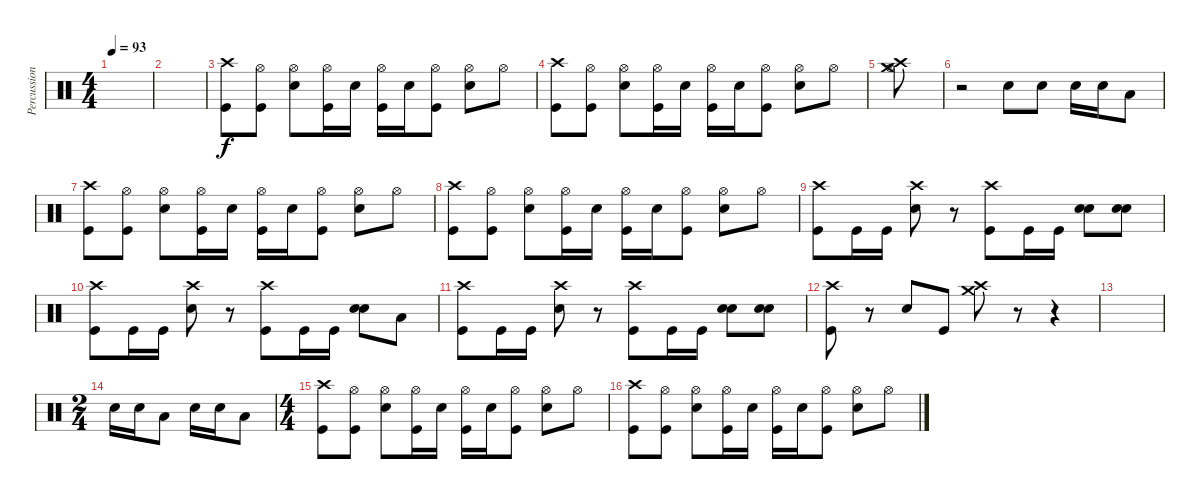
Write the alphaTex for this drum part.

\track ("Percussions" "Percussion") {instrument percussion}
\staff {score}
\articulation defaults
\ts (4 4)
\tempo 93
\clef neutral
\ks c
|
|
("Crash high (hit)" "Kick (hit)").8 ("Hi-Hat (open)" "Kick (hit)").8 ("Hi-Hat (open)" "Electric Snare (hit)").8 ("Hi-Hat (open)" "Kick (hit)").16 "Electric Snare (hit)".16 ("Hi-Hat (open)" "Kick (hit)").16 "Electric Snare (hit)".16 ("Hi-Hat (open)" "Kick (hit)").8 ("Hi-Hat (open)" "Electric Snare (hit)").8 "Hi-Hat (open)".8 |
("Crash high (hit)" "Kick (hit)").8 ("Hi-Hat (open)" "Kick (hit)").8 ("Hi-Hat (open)" "Electric Snare (hit)").8 ("Hi-Hat (open)" "Kick (hit)").16 "Electric Snare (hit)".16 ("Hi-Hat (open)" "Kick (hit)").16 "Electric Snare (hit)".16 ("Hi-Hat (open)" "Kick (hit)").8 ("Hi-Hat (open)" "Electric Snare (hit)").8 "Hi-Hat (open)".8 |
("Crash high (hit)" "Crash medium (hit)" "Hi-Hat (open)").8 |
r.2 "Electric Snare (hit)".8 "Electric Snare (hit)".8 "Electric Snare (hit)".16 "Electric Snare (hit)".16 "Low Tom (hit)".8 |
("Crash high (hit)" "Kick (hit)").8 ("Hi-Hat (open)" "Kick (hit)").8 ("Hi-Hat (open)" "Electric Snare (hit)").8 ("Hi-Hat (open)" "Kick (hit)").16 "Electric Snare (hit)".16 ("Hi-Hat (open)" "Kick (hit)").16 "Electric Snare (hit)".16 ("Hi-Hat (open)" "Kick (hit)").8 ("Hi-Hat (open)" "Electric Snare (hit)").8 "Hi-Hat (open)".8 |
("Crash high (hit)" "Kick (hit)").8 ("Hi-Hat (open)" "Kick (hit)").8 ("Hi-Hat (open)" "Electric Snare (hit)").8 ("Hi-Hat (open)" "Kick (hit)").16 "Electric Snare (hit)".16 ("Hi-Hat (open)" "Kick (hit)").16 "Electric Snare (hit)".16 ("Hi-Hat (open)" "Kick (hit)").8 ("Hi-Hat (open)" "Electric Snare (hit)").8 "Hi-Hat (open)".8 |
("Crash high (hit)" "Kick (hit)").8 "Kick (hit)".16 "Kick (hit)".16 ("Crash high (hit)" "Electric Snare (hit)").8 r.8 ("Crash high (hit)" "Kick (hit)").8 "Kick (hit)".16 "Kick (hit)".16 ("Snare (hit) 2" "Electric Snare (hit)").8 ("Snare (hit) 2" "Electric Snare (hit)").8 |
("Crash high (hit)" "Kick (hit)").8 "Kick (hit)".16 "Kick (hit)".16 ("Crash high (hit)" "Electric Snare (hit)").8 r.8 ("Crash high (hit)" "Kick (hit)").8 "Kick (hit)".16 "Kick (hit)".16 ("Snare (hit) 2" "Electric Snare (hit)").8 "Low Floor Tom (hit)".8 |
("Crash high (hit)" "Kick (hit)").8 "Kick (hit)".16 "Kick (hit)".16 ("Crash high (hit)" "Electric Snare (hit)").8 r.8 ("Crash high (hit)" "Kick (hit)").8 "Kick (hit)".16 "Kick (hit)".16 ("Snare (hit) 2" "Electric Snare (hit)").8 ("Snare (hit) 2" "Electric Snare (hit)").8 |
("Crash high (hit)" "Kick (hit)").8 r.8 "Electric Snare (hit)".8 "Kick (hit)".8 ("Crash high (hit)" "Crash medium (hit)").8 r.8 r.4 |
|
\ts (2 4)
"Electric Snare (hit)".16 "Electric Snare (hit)".16 "Low Tom (hit)".8 "Electric Snare (hit)".16 "Electric Snare (hit)".16 "Low Tom (hit)".8 |
\ts (4 4)
("Crash high (hit)" "Kick (hit)").8 ("Hi-Hat (open)" "Kick (hit)").8 ("Hi-Hat (open)" "Electric Snare (hit)").8 ("Hi-Hat (open)" "Kick (hit)").16 "Electric Snare (hit)".16 ("Hi-Hat (open)" "Kick (hit)").16 "Electric Snare (hit)".16 ("Hi-Hat (open)" "Kick (hit)").8 ("Hi-Hat (open)" "Electric Snare (hit)").8 "Hi-Hat (open)".8 |
("Crash high (hit)" "Kick (hit)").8 ("Hi-Hat (open)" "Kick (hit)").8 ("Hi-Hat (open)" "Electric Snare (hit)").8 ("Hi-Hat (open)" "Kick (hit)").16 "Electric Snare (hit)".16 ("Hi-Hat (open)" "Kick (hit)").16 "Electric Snare (hit)".16 ("Hi-Hat (open)" "Kick (hit)").8 ("Hi-Hat (open)" "Electric Snare (hit)").8 "Hi-Hat (open)".8
